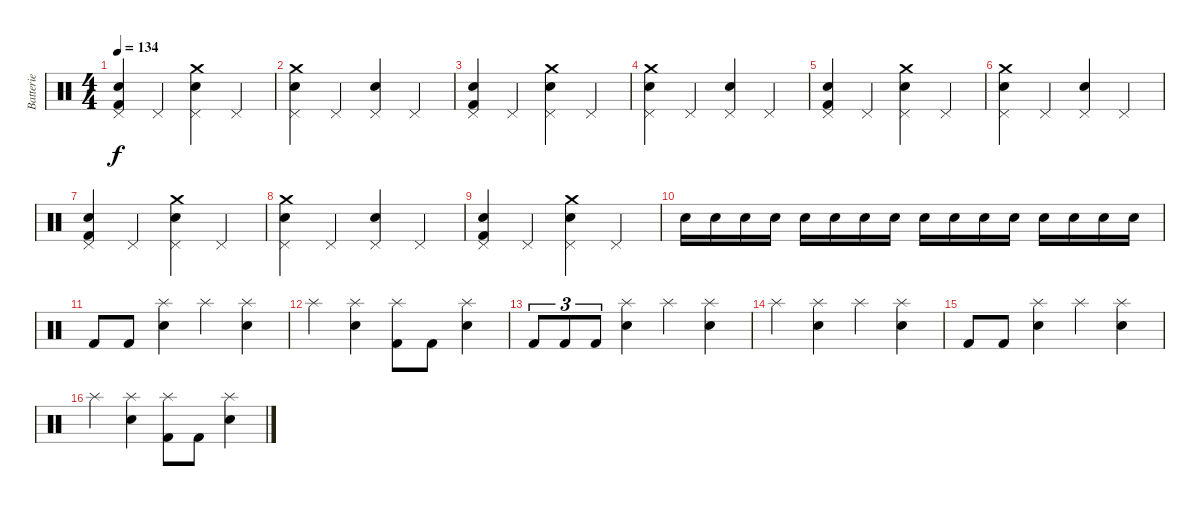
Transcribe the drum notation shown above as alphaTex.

\track ("Batterie" "Batterie") {instrument percussion}
\staff {score}
\articulation defaults
\ts (4 4)
\tempo 134
\clef neutral
\ks c
("Pedal Hi-Hat (hit)" "Kick (hit) 2" "Snare (hit) 2").4{dy f} "Pedal Hi-Hat (hit)".4 ("Pedal Hi-Hat (hit)" "Crash medium (hit)" "Snare (hit) 2").4 "Pedal Hi-Hat (hit)".4 |
("Pedal Hi-Hat (hit)" "Crash medium (hit)" "Snare (hit) 2").4 "Pedal Hi-Hat (hit)".4 ("Pedal Hi-Hat (hit)" "Snare (hit) 2").4 "Pedal Hi-Hat (hit)".4 |
("Pedal Hi-Hat (hit)" "Kick (hit) 2" "Snare (hit) 2").4 "Pedal Hi-Hat (hit)".4 ("Pedal Hi-Hat (hit)" "Crash medium (hit)" "Snare (hit) 2").4 "Pedal Hi-Hat (hit)".4 |
("Pedal Hi-Hat (hit)" "Crash medium (hit)" "Snare (hit) 2").4 "Pedal Hi-Hat (hit)".4 ("Pedal Hi-Hat (hit)" "Snare (hit) 2").4 "Pedal Hi-Hat (hit)".4 |
("Pedal Hi-Hat (hit)" "Kick (hit) 2" "Snare (hit) 2").4 "Pedal Hi-Hat (hit)".4 ("Pedal Hi-Hat (hit)" "Crash medium (hit)" "Snare (hit) 2").4 "Pedal Hi-Hat (hit)".4 |
("Pedal Hi-Hat (hit)" "Crash medium (hit)" "Snare (hit) 2").4 "Pedal Hi-Hat (hit)".4 ("Pedal Hi-Hat (hit)" "Snare (hit) 2").4 "Pedal Hi-Hat (hit)".4 |
("Pedal Hi-Hat (hit)" "Kick (hit) 2" "Snare (hit) 2").4 "Pedal Hi-Hat (hit)".4 ("Pedal Hi-Hat (hit)" "Crash medium (hit)" "Snare (hit) 2").4 "Pedal Hi-Hat (hit)".4 |
("Pedal Hi-Hat (hit)" "Crash medium (hit)" "Snare (hit) 2").4 "Pedal Hi-Hat (hit)".4 ("Pedal Hi-Hat (hit)" "Snare (hit) 2").4 "Pedal Hi-Hat (hit)".4 |
("Pedal Hi-Hat (hit)" "Kick (hit) 2" "Snare (hit) 2").4 "Pedal Hi-Hat (hit)".4 ("Pedal Hi-Hat (hit)" "Crash medium (hit)" "Snare (hit) 2").4 "Pedal Hi-Hat (hit)".4 |
"Electric Snare (hit)".16 "Electric Snare (hit)".16 "Electric Snare (hit)".16 "Electric Snare (hit)".16 "Electric Snare (hit)".16 "Electric Snare (hit)".16 "Electric Snare (hit)".16 "Electric Snare (hit)".16 "Electric Snare (hit)".16 "Electric Snare (hit)".16 "Electric Snare (hit)".16 "Electric Snare (hit)".16 "Electric Snare (hit)".16 "Electric Snare (hit)".16 "Electric Snare (hit)".16 "Electric Snare (hit)".16 |
"Kick (hit) 2".8 "Kick (hit) 2".8 ("Splash (hit)" "Electric Snare (hit)").4 "Splash (hit)".4 ("Splash (hit)" "Electric Snare (hit)").4 |
"Splash (hit)".4 ("Splash (hit)" "Electric Snare (hit)").4 ("Splash (hit)" "Kick (hit) 2").8 "Kick (hit) 2".8 ("Splash (hit)" "Electric Snare (hit)").4 |
"Kick (hit) 2".8{tu (3 2)} "Kick (hit) 2".8{tu (3 2)} "Kick (hit) 2".8{tu (3 2)} ("Splash (hit)" "Electric Snare (hit)").4 "Splash (hit)".4 ("Splash (hit)" "Electric Snare (hit)").4 |
"Splash (hit)".4 ("Splash (hit)" "Electric Snare (hit)").4 "Splash (hit)".4 ("Splash (hit)" "Electric Snare (hit)").4 |
"Kick (hit) 2".8 "Kick (hit) 2".8 ("Splash (hit)" "Electric Snare (hit)").4 "Splash (hit)".4 ("Splash (hit)" "Electric Snare (hit)").4 |
"Splash (hit)".4 ("Splash (hit)" "Electric Snare (hit)").4 ("Splash (hit)" "Kick (hit) 2").8 "Kick (hit) 2".8 ("Splash (hit)" "Electric Snare (hit)").4
